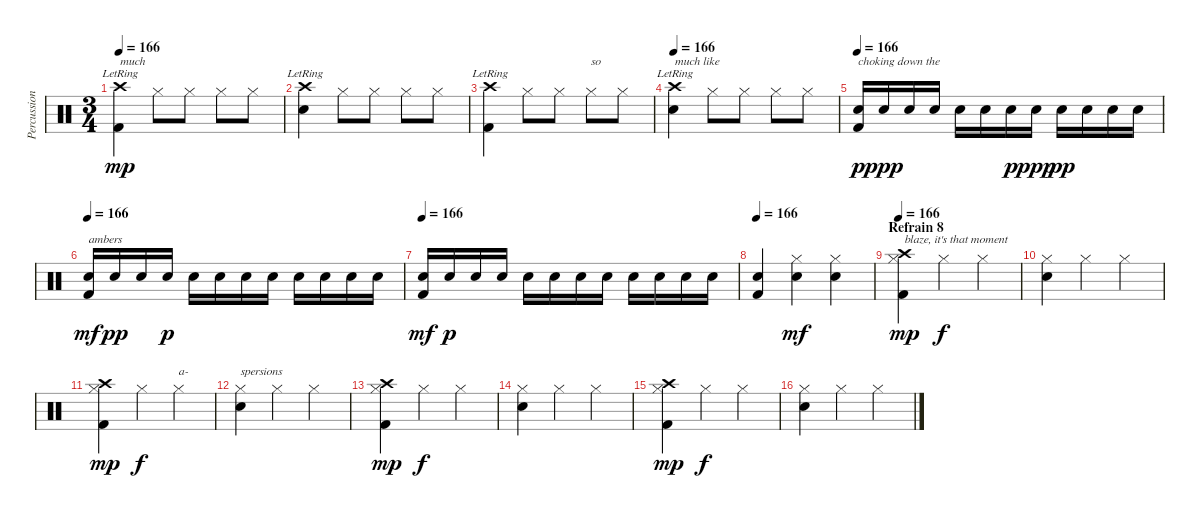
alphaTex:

\track ("Percussion" "Percussion") {instrument percussion}
\staff {score}
\articulation defaults
\ts (3 4)
\tempo 166
\clef neutral
\ks c
("Crash high (hit)"{lr} "Kick (hit) 2").4{txt "much" dy mp} "Hi-Hat (closed)".8 "Hi-Hat (closed)".8 "Hi-Hat (closed)".8 "Hi-Hat (closed)".8 |
("Crash high (hit)"{lr} "Electric Snare (hit)").4 "Hi-Hat (closed)".8 "Hi-Hat (closed)".8 "Hi-Hat (closed)".8 "Hi-Hat (closed)".8 |
("Crash high (hit)"{lr} "Kick (hit) 2").4 "Hi-Hat (closed)".8 "Hi-Hat (closed)".8 "Hi-Hat (closed)".8{txt "so"} "Hi-Hat (closed)".8 |
\tempo 166
("Crash high (hit)"{lr} "Electric Snare (hit)").4{txt "much like"} "Hi-Hat (closed)".8 "Hi-Hat (closed)".8 "Hi-Hat (closed)".8 "Hi-Hat (closed)".8 |
\tempo 166
("Snare (hit) 2" "Kick (hit) 2").16{txt "choking down the" dy p} "Snare (hit) 2".16{dy ppp} "Snare (hit) 2".16 "Snare (hit) 2".16 "Snare (hit) 2".16 "Snare (hit) 2".16 "Snare (hit) 2".16{dy p} "Snare (hit) 2".16{dy ppp} "Snare (hit) 2".16{dy pp} "Snare (hit) 2".16 "Snare (hit) 2".16 "Snare (hit) 2".16 |
\tempo 166
("Snare (hit) 2" "Kick (hit) 2").16{txt "ambers" dy mf} "Snare (hit) 2".16{dy pp} "Snare (hit) 2".16 "Snare (hit) 2".16{dy p} "Snare (hit) 2".16 "Snare (hit) 2".16 "Snare (hit) 2".16 "Snare (hit) 2".16 "Snare (hit) 2".16 "Snare (hit) 2".16 "Snare (hit) 2".16 "Snare (hit) 2".16 |
\tempo 166
("Snare (hit) 2" "Kick (hit) 2").16{dy mf} "Snare (hit) 2".16{dy p} "Snare (hit) 2".16 "Snare (hit) 2".16 "Snare (hit) 2".16 "Snare (hit) 2".16 "Snare (hit) 2".16 "Snare (hit) 2".16 "Snare (hit) 2".16 "Snare (hit) 2".16 "Snare (hit) 2".16 "Snare (hit) 2".16 |
\tempo 166
("Snare (hit) 2" "Kick (hit) 2").4 ("Hi-Hat (closed)" "Snare (hit) 2").4{dy mf} ("Hi-Hat (closed)" "Snare (hit) 2").4 |
\section ("" "Refrain 8")
\tempo 166
("Hi-Hat (closed)" "Crash high (hit)" "Kick (hit) 2").4{txt "blaze, it's that moment" dy mp} "Hi-Hat (closed)".4{dy f} "Hi-Hat (closed)".4 |
("Hi-Hat (closed)" "Electric Snare (hit)").4 "Hi-Hat (closed)".4 "Hi-Hat (closed)".4 |
("Hi-Hat (closed)" "Crash high (hit)" "Kick (hit) 2").4{dy mp} "Hi-Hat (closed)".4{dy f} "Hi-Hat (closed)".4{txt "a-"} |
("Hi-Hat (closed)" "Electric Snare (hit)").4{txt "spersions"} "Hi-Hat (closed)".4 "Hi-Hat (closed)".4 |
("Hi-Hat (closed)" "Crash high (hit)" "Kick (hit) 2").4{dy mp} "Hi-Hat (closed)".4{dy f} "Hi-Hat (closed)".4 |
("Hi-Hat (closed)" "Electric Snare (hit)").4 "Hi-Hat (closed)".4 "Hi-Hat (closed)".4 |
("Hi-Hat (closed)" "Crash high (hit)" "Kick (hit) 2").4{dy mp} "Hi-Hat (closed)".4{dy f} "Hi-Hat (closed)".4 |
("Hi-Hat (closed)" "Electric Snare (hit)").4 "Hi-Hat (closed)".4 "Hi-Hat (closed)".4
